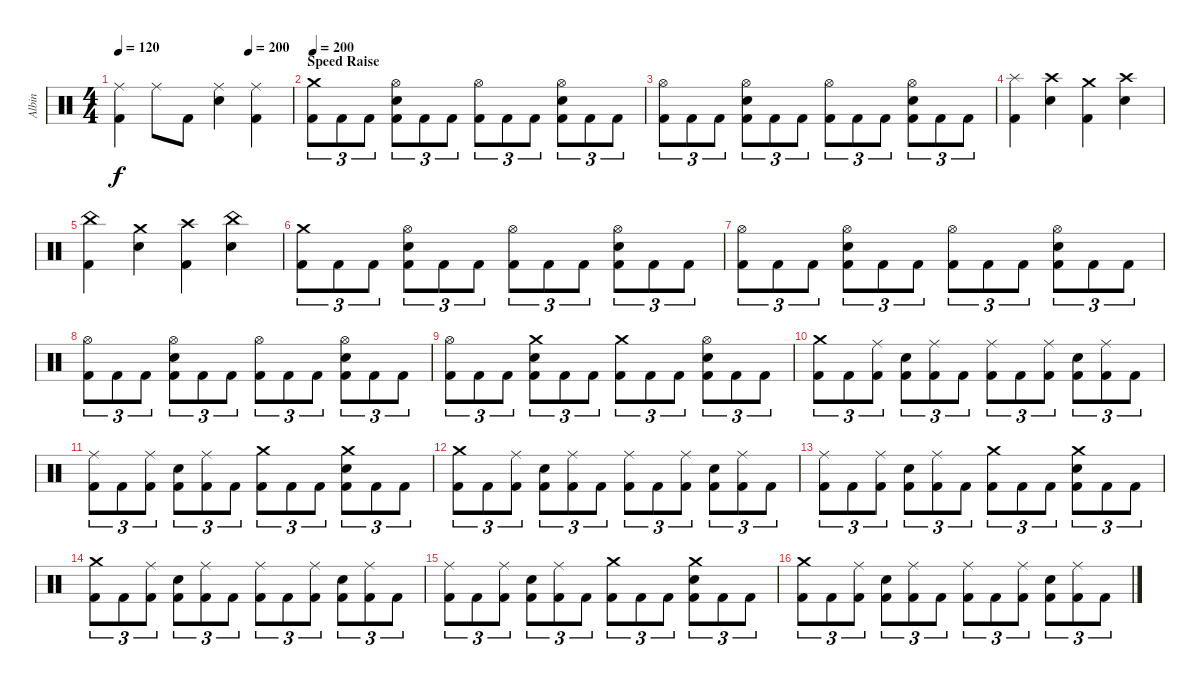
\track ("Albin" "Albin") {instrument percussion}
\staff {score}
\articulation defaults
\ts (4 4)
\tempo 120
\tempo (200 0.75)
\clef neutral
\ks c
("Ride (middle)" "Kick (hit) 2").4{dy f} "Ride (middle)".8 "Kick (hit) 2".8 ("Ride (middle)" "Electric Snare (hit)").4 ("Ride (middle)" "Kick (hit) 2").4 |
\section ("" "Speed Raise")
\tempo 200
("Crash medium (hit)" "Kick (hit) 2").8{tu (3 2)} "Kick (hit) 2".8{tu (3 2)} "Kick (hit) 2".8{tu (3 2)} ("Hi-Hat (open)" "Electric Snare (hit)" "Kick (hit) 2").8{tu (3 2)} "Kick (hit) 2".8{tu (3 2)} "Kick (hit) 2".8{tu (3 2)} ("Hi-Hat (open)" "Kick (hit) 2").8{tu (3 2)} "Kick (hit) 2".8{tu (3 2)} "Kick (hit) 2".8{tu (3 2)} ("Hi-Hat (open)" "Electric Snare (hit)" "Kick (hit) 2").8{tu (3 2)} "Kick (hit) 2".8{tu (3 2)} "Kick (hit) 2".8{tu (3 2)} |
("Hi-Hat (open)" "Kick (hit) 2").8{tu (3 2)} "Kick (hit) 2".8{tu (3 2)} "Kick (hit) 2".8{tu (3 2)} ("Hi-Hat (open)" "Electric Snare (hit)" "Kick (hit) 2").8{tu (3 2)} "Kick (hit) 2".8{tu (3 2)} "Kick (hit) 2".8{tu (3 2)} ("Hi-Hat (open)" "Kick (hit) 2").8{tu (3 2)} "Kick (hit) 2".8{tu (3 2)} "Kick (hit) 2".8{tu (3 2)} ("Hi-Hat (open)" "Electric Snare (hit)" "Kick (hit) 2").8{tu (3 2)} "Kick (hit) 2".8{tu (3 2)} "Kick (hit) 2".8{tu (3 2)} |
("Splash (hit)" "Kick (hit) 2").4 ("Crash high (hit)" "Electric Snare (hit)").4 ("Crash medium (hit)" "Kick (hit) 2").4 ("Crash high (hit)" "Electric Snare (hit)").4 |
("China (hit)" "Kick (hit) 2").4 ("Crash medium (hit)" "Electric Snare (hit)").4 ("Crash high (hit)" "Kick (hit) 2").4 ("China (hit)" "Electric Snare (hit)").4 |
("Crash medium (hit)" "Kick (hit) 2").8{tu (3 2)} "Kick (hit) 2".8{tu (3 2)} "Kick (hit) 2".8{tu (3 2)} ("Hi-Hat (open)" "Electric Snare (hit)" "Kick (hit) 2").8{tu (3 2)} "Kick (hit) 2".8{tu (3 2)} "Kick (hit) 2".8{tu (3 2)} ("Hi-Hat (open)" "Kick (hit) 2").8{tu (3 2)} "Kick (hit) 2".8{tu (3 2)} "Kick (hit) 2".8{tu (3 2)} ("Hi-Hat (open)" "Electric Snare (hit)" "Kick (hit) 2").8{tu (3 2)} "Kick (hit) 2".8{tu (3 2)} "Kick (hit) 2".8{tu (3 2)} |
("Hi-Hat (open)" "Kick (hit) 2").8{tu (3 2)} "Kick (hit) 2".8{tu (3 2)} "Kick (hit) 2".8{tu (3 2)} ("Hi-Hat (open)" "Electric Snare (hit)" "Kick (hit) 2").8{tu (3 2)} "Kick (hit) 2".8{tu (3 2)} "Kick (hit) 2".8{tu (3 2)} ("Hi-Hat (open)" "Kick (hit) 2").8{tu (3 2)} "Kick (hit) 2".8{tu (3 2)} "Kick (hit) 2".8{tu (3 2)} ("Hi-Hat (open)" "Electric Snare (hit)" "Kick (hit) 2").8{tu (3 2)} "Kick (hit) 2".8{tu (3 2)} "Kick (hit) 2".8{tu (3 2)} |
("Hi-Hat (open)" "Kick (hit) 2").8{tu (3 2)} "Kick (hit) 2".8{tu (3 2)} "Kick (hit) 2".8{tu (3 2)} ("Hi-Hat (open)" "Electric Snare (hit)" "Kick (hit) 2").8{tu (3 2)} "Kick (hit) 2".8{tu (3 2)} "Kick (hit) 2".8{tu (3 2)} ("Hi-Hat (open)" "Kick (hit) 2").8{tu (3 2)} "Kick (hit) 2".8{tu (3 2)} "Kick (hit) 2".8{tu (3 2)} ("Hi-Hat (open)" "Electric Snare (hit)" "Kick (hit) 2").8{tu (3 2)} "Kick (hit) 2".8{tu (3 2)} "Kick (hit) 2".8{tu (3 2)} |
("Hi-Hat (open)" "Kick (hit) 2").8{tu (3 2)} "Kick (hit) 2".8{tu (3 2)} "Kick (hit) 2".8{tu (3 2)} ("Crash medium (hit)" "Electric Snare (hit)" "Kick (hit) 2").8{tu (3 2)} "Kick (hit) 2".8{tu (3 2)} "Kick (hit) 2".8{tu (3 2)} ("Crash medium (hit)" "Kick (hit) 2").8{tu (3 2)} "Kick (hit) 2".8{tu (3 2)} "Kick (hit) 2".8{tu (3 2)} ("Hi-Hat (open)" "Electric Snare (hit)" "Kick (hit) 2").8{tu (3 2)} "Kick (hit) 2".8{tu (3 2)} "Kick (hit) 2".8{tu (3 2)} |
("Crash medium (hit)" "Kick (hit) 2").8{tu (3 2)} "Kick (hit) 2".8{tu (3 2)} ("Ride (middle)" "Kick (hit) 2").8{tu (3 2)} ("Electric Snare (hit)" "Kick (hit) 2").8{tu (3 2)} ("Ride (middle)" "Kick (hit) 2").8{tu (3 2)} "Kick (hit) 2".8{tu (3 2)} ("Ride (middle)" "Kick (hit) 2").8{tu (3 2)} "Kick (hit) 2".8{tu (3 2)} ("Ride (middle)" "Kick (hit) 2").8{tu (3 2)} ("Electric Snare (hit)" "Kick (hit) 2").8{tu (3 2)} ("Ride (middle)" "Kick (hit) 2").8{tu (3 2)} "Kick (hit) 2".8{tu (3 2)} |
("Ride (middle)" "Kick (hit) 2").8{tu (3 2)} "Kick (hit) 2".8{tu (3 2)} ("Ride (middle)" "Kick (hit) 2").8{tu (3 2)} ("Electric Snare (hit)" "Kick (hit) 2").8{tu (3 2)} ("Ride (middle)" "Kick (hit) 2").8{tu (3 2)} "Kick (hit) 2".8{tu (3 2)} ("Crash medium (hit)" "Kick (hit) 2").8{tu (3 2)} "Kick (hit) 2".8{tu (3 2)} "Kick (hit) 2".8{tu (3 2)} ("Crash medium (hit)" "Electric Snare (hit)" "Kick (hit) 2").8{tu (3 2)} "Kick (hit) 2".8{tu (3 2)} "Kick (hit) 2".8{tu (3 2)} |
("Crash medium (hit)" "Kick (hit) 2").8{tu (3 2)} "Kick (hit) 2".8{tu (3 2)} ("Ride (middle)" "Kick (hit) 2").8{tu (3 2)} ("Electric Snare (hit)" "Kick (hit) 2").8{tu (3 2)} ("Ride (middle)" "Kick (hit) 2").8{tu (3 2)} "Kick (hit) 2".8{tu (3 2)} ("Ride (middle)" "Kick (hit) 2").8{tu (3 2)} "Kick (hit) 2".8{tu (3 2)} ("Ride (middle)" "Kick (hit) 2").8{tu (3 2)} ("Electric Snare (hit)" "Kick (hit) 2").8{tu (3 2)} ("Ride (middle)" "Kick (hit) 2").8{tu (3 2)} "Kick (hit) 2".8{tu (3 2)} |
("Ride (middle)" "Kick (hit) 2").8{tu (3 2)} "Kick (hit) 2".8{tu (3 2)} ("Ride (middle)" "Kick (hit) 2").8{tu (3 2)} ("Electric Snare (hit)" "Kick (hit) 2").8{tu (3 2)} ("Ride (middle)" "Kick (hit) 2").8{tu (3 2)} "Kick (hit) 2".8{tu (3 2)} ("Crash medium (hit)" "Kick (hit) 2").8{tu (3 2)} "Kick (hit) 2".8{tu (3 2)} "Kick (hit) 2".8{tu (3 2)} ("Crash medium (hit)" "Electric Snare (hit)" "Kick (hit) 2").8{tu (3 2)} "Kick (hit) 2".8{tu (3 2)} "Kick (hit) 2".8{tu (3 2)} |
("Crash medium (hit)" "Kick (hit) 2").8{tu (3 2)} "Kick (hit) 2".8{tu (3 2)} ("Ride (middle)" "Kick (hit) 2").8{tu (3 2)} ("Electric Snare (hit)" "Kick (hit) 2").8{tu (3 2)} ("Ride (middle)" "Kick (hit) 2").8{tu (3 2)} "Kick (hit) 2".8{tu (3 2)} ("Ride (middle)" "Kick (hit) 2").8{tu (3 2)} "Kick (hit) 2".8{tu (3 2)} ("Ride (middle)" "Kick (hit) 2").8{tu (3 2)} ("Electric Snare (hit)" "Kick (hit) 2").8{tu (3 2)} ("Ride (middle)" "Kick (hit) 2").8{tu (3 2)} "Kick (hit) 2".8{tu (3 2)} |
("Ride (middle)" "Kick (hit) 2").8{tu (3 2)} "Kick (hit) 2".8{tu (3 2)} ("Ride (middle)" "Kick (hit) 2").8{tu (3 2)} ("Electric Snare (hit)" "Kick (hit) 2").8{tu (3 2)} ("Ride (middle)" "Kick (hit) 2").8{tu (3 2)} "Kick (hit) 2".8{tu (3 2)} ("Crash medium (hit)" "Kick (hit) 2").8{tu (3 2)} "Kick (hit) 2".8{tu (3 2)} "Kick (hit) 2".8{tu (3 2)} ("Crash medium (hit)" "Electric Snare (hit)" "Kick (hit) 2").8{tu (3 2)} "Kick (hit) 2".8{tu (3 2)} "Kick (hit) 2".8{tu (3 2)} |
("Crash medium (hit)" "Kick (hit) 2").8{tu (3 2)} "Kick (hit) 2".8{tu (3 2)} ("Ride (middle)" "Kick (hit) 2").8{tu (3 2)} ("Electric Snare (hit)" "Kick (hit) 2").8{tu (3 2)} ("Ride (middle)" "Kick (hit) 2").8{tu (3 2)} "Kick (hit) 2".8{tu (3 2)} ("Ride (middle)" "Kick (hit) 2").8{tu (3 2)} "Kick (hit) 2".8{tu (3 2)} ("Ride (middle)" "Kick (hit) 2").8{tu (3 2)} ("Electric Snare (hit)" "Kick (hit) 2").8{tu (3 2)} ("Ride (middle)" "Kick (hit) 2").8{tu (3 2)} "Kick (hit) 2".8{tu (3 2)}
